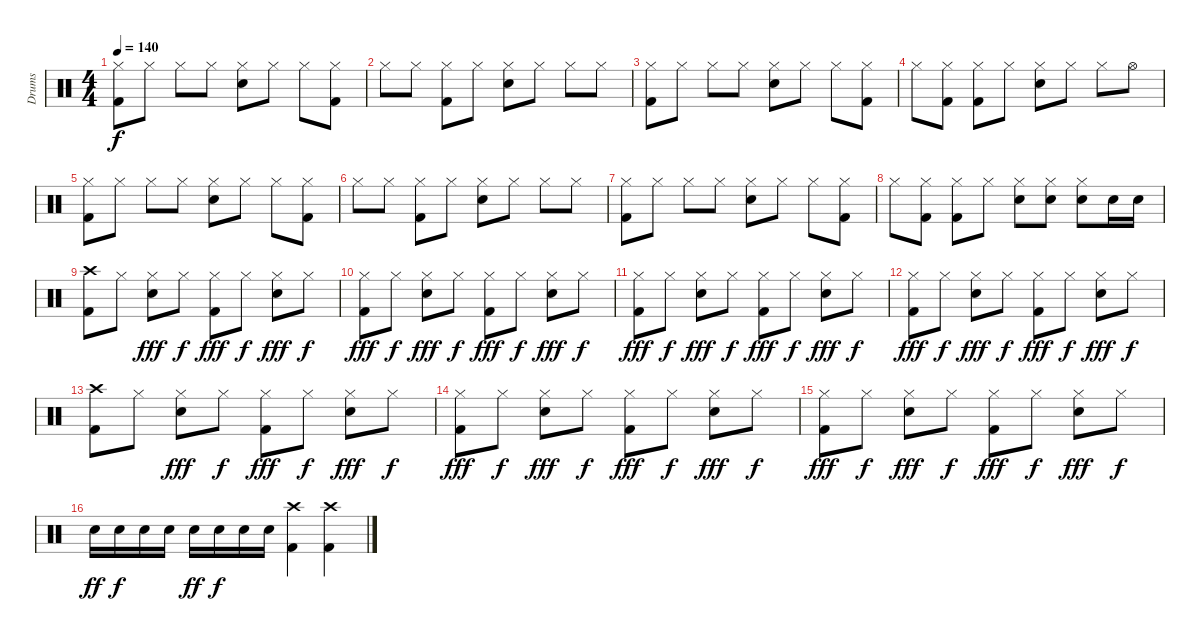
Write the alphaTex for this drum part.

\track ("Drums" "Drums") {instrument percussion}
\staff {score}
\articulation defaults
\ts (4 4)
\tempo 140
\clef neutral
\ks c
("Hi-Hat (closed)" "Kick (hit) 2").8{dy f} "Hi-Hat (closed)".8 "Hi-Hat (closed)".8 "Hi-Hat (closed)".8 ("Hi-Hat (closed)" "Snare (hit) 2").8 "Hi-Hat (closed)".8 "Hi-Hat (closed)".8 ("Hi-Hat (closed)" "Kick (hit) 2").8 |
"Hi-Hat (closed)".8 "Hi-Hat (closed)".8 ("Hi-Hat (closed)" "Kick (hit) 2").8 "Hi-Hat (closed)".8 ("Hi-Hat (closed)" "Snare (hit) 2").8 "Hi-Hat (closed)".8 "Hi-Hat (closed)".8 "Hi-Hat (closed)".8 |
("Hi-Hat (closed)" "Kick (hit) 2").8 "Hi-Hat (closed)".8 "Hi-Hat (closed)".8 "Hi-Hat (closed)".8 ("Hi-Hat (closed)" "Snare (hit) 2").8 "Hi-Hat (closed)".8 "Hi-Hat (closed)".8 ("Hi-Hat (closed)" "Kick (hit) 2").8 |
"Hi-Hat (closed)".8 ("Hi-Hat (closed)" "Kick (hit) 2").8 ("Hi-Hat (closed)" "Kick (hit) 2").8 "Hi-Hat (closed)".8 ("Hi-Hat (closed)" "Snare (hit) 2").8 "Hi-Hat (closed)".8 "Hi-Hat (closed)".8 "Hi-Hat (open)".8 |
("Hi-Hat (closed)" "Kick (hit) 2").8 "Hi-Hat (closed)".8 "Hi-Hat (closed)".8 "Hi-Hat (closed)".8 ("Hi-Hat (closed)" "Snare (hit) 2").8 "Hi-Hat (closed)".8 "Hi-Hat (closed)".8 ("Hi-Hat (closed)" "Kick (hit) 2").8 |
"Hi-Hat (closed)".8 "Hi-Hat (closed)".8 ("Hi-Hat (closed)" "Kick (hit) 2").8 "Hi-Hat (closed)".8 ("Hi-Hat (closed)" "Snare (hit) 2").8 "Hi-Hat (closed)".8 "Hi-Hat (closed)".8 "Hi-Hat (closed)".8 |
("Hi-Hat (closed)" "Kick (hit) 2").8 "Hi-Hat (closed)".8 "Hi-Hat (closed)".8 "Hi-Hat (closed)".8 ("Hi-Hat (closed)" "Snare (hit) 2").8 "Hi-Hat (closed)".8 "Hi-Hat (closed)".8 ("Hi-Hat (closed)" "Kick (hit) 2").8 |
"Hi-Hat (closed)".8 ("Hi-Hat (closed)" "Kick (hit) 2").8 ("Hi-Hat (closed)" "Kick (hit) 2").8 "Hi-Hat (closed)".8 ("Hi-Hat (closed)" "Snare (hit) 2").8 ("Hi-Hat (closed)" "Snare (hit) 2").8 ("Hi-Hat (closed)" "Snare (hit) 2").8 "Snare (hit) 2".16 "Snare (hit) 2".16 |
("Crash high (hit)" "Kick (hit) 2").8 "Hi-Hat (closed)".8 ("Hi-Hat (closed)" "Snare (hit) 2").8{dy fff} "Hi-Hat (closed)".8{dy f} ("Hi-Hat (closed)" "Kick (hit) 2").8{dy fff} "Hi-Hat (closed)".8{dy f} ("Hi-Hat (closed)" "Snare (hit) 2").8{dy fff} "Hi-Hat (closed)".8{dy f} |
("Hi-Hat (closed)" "Kick (hit) 2").8{dy fff} "Hi-Hat (closed)".8{dy f} ("Hi-Hat (closed)" "Snare (hit) 2").8{dy fff} "Hi-Hat (closed)".8{dy f} ("Hi-Hat (closed)" "Kick (hit) 2").8{dy fff} "Hi-Hat (closed)".8{dy f} ("Hi-Hat (closed)" "Snare (hit) 2").8{dy fff} "Hi-Hat (closed)".8{dy f} |
("Hi-Hat (closed)" "Kick (hit) 2").8{dy fff} "Hi-Hat (closed)".8{dy f} ("Hi-Hat (closed)" "Snare (hit) 2").8{dy fff} "Hi-Hat (closed)".8{dy f} ("Hi-Hat (closed)" "Kick (hit) 2").8{dy fff} "Hi-Hat (closed)".8{dy f} ("Hi-Hat (closed)" "Snare (hit) 2").8{dy fff} "Hi-Hat (closed)".8{dy f} |
("Hi-Hat (closed)" "Kick (hit) 2").8{dy fff} "Hi-Hat (closed)".8{dy f} ("Hi-Hat (closed)" "Snare (hit) 2").8{dy fff} "Hi-Hat (closed)".8{dy f} ("Hi-Hat (closed)" "Kick (hit) 2").8{dy fff} "Hi-Hat (closed)".8{dy f} ("Hi-Hat (closed)" "Snare (hit) 2").8{dy fff} "Hi-Hat (closed)".8{dy f} |
("Crash high (hit)" "Kick (hit) 2").8 "Hi-Hat (closed)".8 ("Hi-Hat (closed)" "Snare (hit) 2").8{dy fff} "Hi-Hat (closed)".8{dy f} ("Hi-Hat (closed)" "Kick (hit) 2").8{dy fff} "Hi-Hat (closed)".8{dy f} ("Hi-Hat (closed)" "Snare (hit) 2").8{dy fff} "Hi-Hat (closed)".8{dy f} |
("Hi-Hat (closed)" "Kick (hit) 2").8{dy fff} "Hi-Hat (closed)".8{dy f} ("Hi-Hat (closed)" "Snare (hit) 2").8{dy fff} "Hi-Hat (closed)".8{dy f} ("Hi-Hat (closed)" "Kick (hit) 2").8{dy fff} "Hi-Hat (closed)".8{dy f} ("Hi-Hat (closed)" "Snare (hit) 2").8{dy fff} "Hi-Hat (closed)".8{dy f} |
("Hi-Hat (closed)" "Kick (hit) 2").8{dy fff} "Hi-Hat (closed)".8{dy f} ("Hi-Hat (closed)" "Snare (hit) 2").8{dy fff} "Hi-Hat (closed)".8{dy f} ("Hi-Hat (closed)" "Kick (hit) 2").8{dy fff} "Hi-Hat (closed)".8{dy f} ("Hi-Hat (closed)" "Snare (hit) 2").8{dy fff} "Hi-Hat (closed)".8{dy f} |
"Snare (hit) 2".16{dy ff} "Snare (hit) 2".16{dy f} "Snare (hit) 2".16 "Snare (hit) 2".16 "Snare (hit) 2".16{dy ff} "Snare (hit) 2".16{dy f} "Snare (hit) 2".16 "Snare (hit) 2".16 ("Crash high (hit)" "Kick (hit) 2").4 ("Crash high (hit)" "Kick (hit) 2").4
